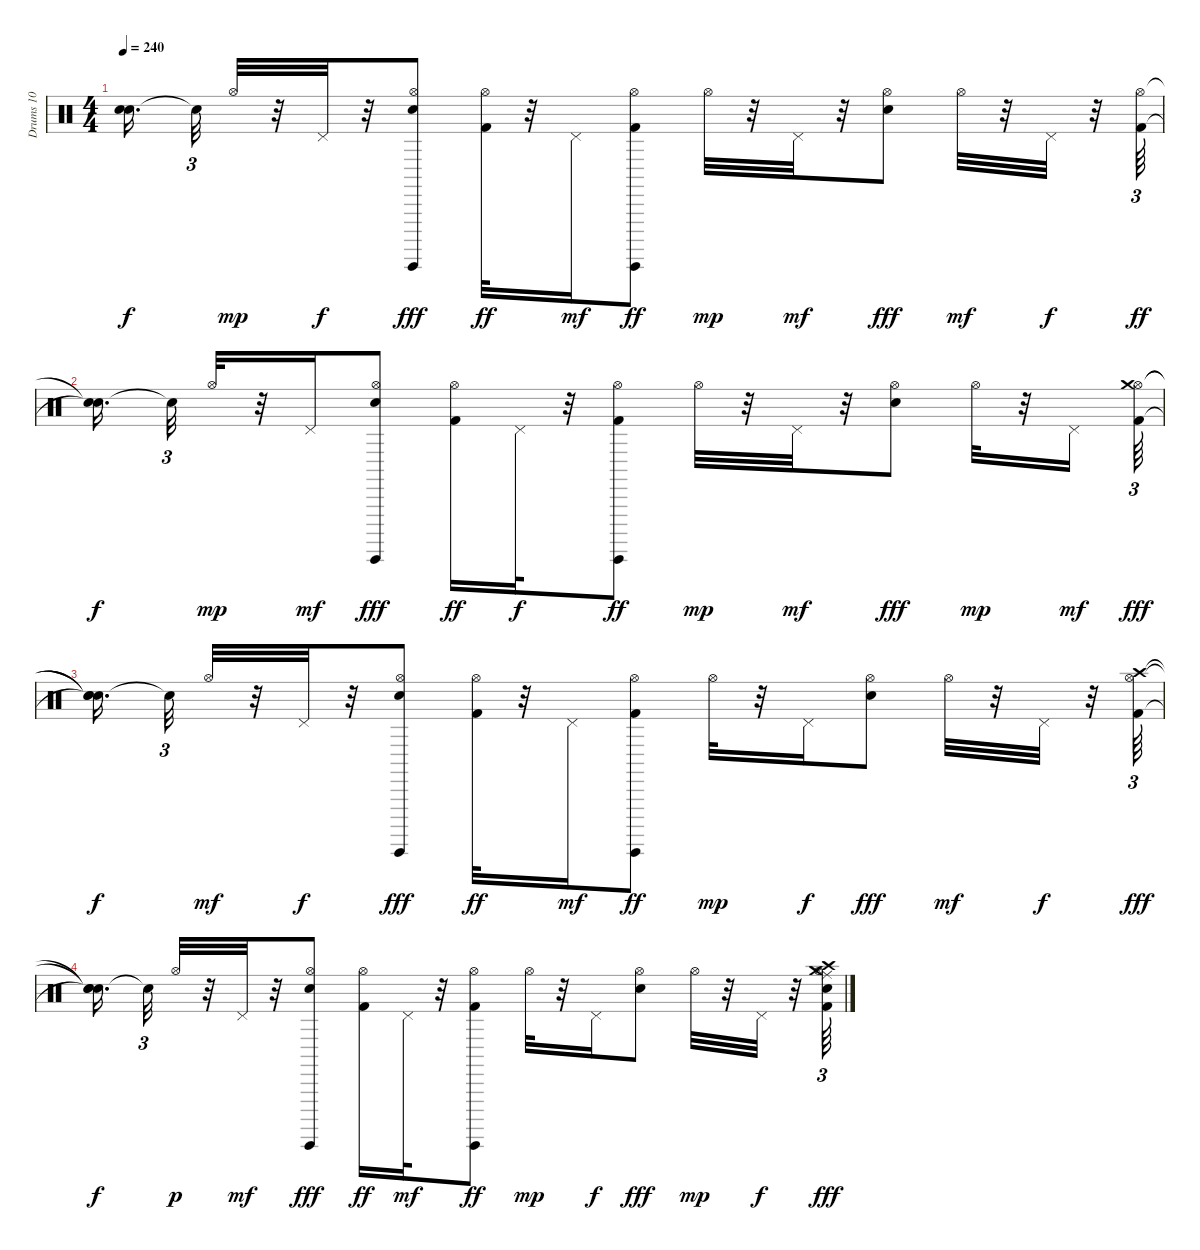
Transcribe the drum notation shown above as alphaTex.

\track ("Drums 10" "Drums 10") {instrument percussion}
\staff {score}
\articulation defaults
\ts (4 4)
\tempo 240
\clef neutral
\ks c
("Snare (hit)"{t} "Snare (hit)"{t}).16{d dy f beam splitsecondary} "Snare (hit)"{t}.32{tu (3 2)} "Hi-Hat (open)".32{dy mp} r.32 "Pedal Hi-Hat (hit)".32{dy f} r.32 ("Hi-Hat (open)" "Guiro (hit)" "Snare (hit) 2").8{dy fff} ("Hi-Hat (open)" "Kick (hit) 2").32{dy ff} r.32 "Pedal Hi-Hat (hit)".16{dy mf} ("Hi-Hat (open)" "Guiro (hit)" "Kick (hit) 2").8{dy ff} "Hi-Hat (open)".32{dy mp} r.32 "Pedal Hi-Hat (hit)".32{dy mf} r.32 ("Hi-Hat (open)" "Snare (hit) 2").8{dy fff} "Hi-Hat (open)".32{dy mf} r.32 "Pedal Hi-Hat (hit)".32{dy f} r.32 ("Hi-Hat (open)" "Kick (hit) 2").64{tu (3 2) dy ff} |
("Snare (hit)"{t} "Snare (hit)"{t}).16{d dy f beam splitsecondary} "Snare (hit)"{t}.32{tu (3 2)} "Hi-Hat (open)".32{dy mp} r.32 "Pedal Hi-Hat (hit)".16{dy mf} ("Hi-Hat (open)" "Guiro (hit)" "Snare (hit) 2").8{dy fff} ("Hi-Hat (open)" "Kick (hit) 2").16{dy ff} "Pedal Hi-Hat (hit)".32{dy f} r.32 ("Hi-Hat (open)" "Guiro (hit)" "Kick (hit) 2").8{dy ff} "Hi-Hat (open)".32{dy mp} r.32 "Pedal Hi-Hat (hit)".32{dy mf} r.32 ("Hi-Hat (open)" "Snare (hit) 2").8{dy fff} "Hi-Hat (open)".32{dy mp} r.32 "Pedal Hi-Hat (hit)".16{dy mf} ("Hi-Hat (open)" "Kick (hit) 2" "Crash medium (hit)").64{tu (3 2) dy fff} |
("Snare (hit)"{t} "Snare (hit)"{t} "Snare (hit)"{t}).16{d dy f beam splitsecondary} "Snare (hit)"{t}.32{tu (3 2)} "Hi-Hat (open)".32{dy mf} r.32 "Pedal Hi-Hat (hit)".32{dy f} r.32 ("Hi-Hat (open)" "Guiro (hit)" "Snare (hit) 2").8{dy fff} ("Hi-Hat (open)" "Kick (hit) 2").32{dy ff} r.32 "Pedal Hi-Hat (hit)".16{dy mf} ("Hi-Hat (open)" "Guiro (hit)" "Kick (hit) 2").8{dy ff} "Hi-Hat (open)".32{dy mp} r.32 "Pedal Hi-Hat (hit)".16{dy f} ("Hi-Hat (open)" "Snare (hit) 2").8{dy fff} "Hi-Hat (open)".32{dy mf} r.32 "Pedal Hi-Hat (hit)".32{dy f} r.32 ("Hi-Hat (open)" "Kick (hit) 2" "Crash high (hit)").64{tu (3 2) dy fff} |
("Snare (hit)"{t} "Snare (hit)"{t} "Snare (hit)"{t}).16{d dy f beam splitsecondary} "Snare (hit)"{t}.32{tu (3 2)} "Hi-Hat (open)".32{dy p} r.32 "Pedal Hi-Hat (hit)".32{dy mf} r.32 ("Hi-Hat (open)" "Guiro (hit)" "Snare (hit) 2").8{dy fff} ("Hi-Hat (open)" "Kick (hit) 2").16{dy ff} "Pedal Hi-Hat (hit)".32{dy mf} r.32 ("Hi-Hat (open)" "Guiro (hit)" "Kick (hit) 2").8{dy ff} "Hi-Hat (open)".32{dy mp} r.32 "Pedal Hi-Hat (hit)".16{dy f} ("Hi-Hat (open)" "Snare (hit) 2").8{dy fff} "Hi-Hat (open)".32{dy mp} r.32 "Pedal Hi-Hat (hit)".32{dy f} r.32 ("Hi-Hat (open)" "Kick (hit) 2" "Electric Snare (hit)" "Ride (middle)" "Crash high (hit)" "Crash medium (hit)").64{tu (3 2) dy fff}
